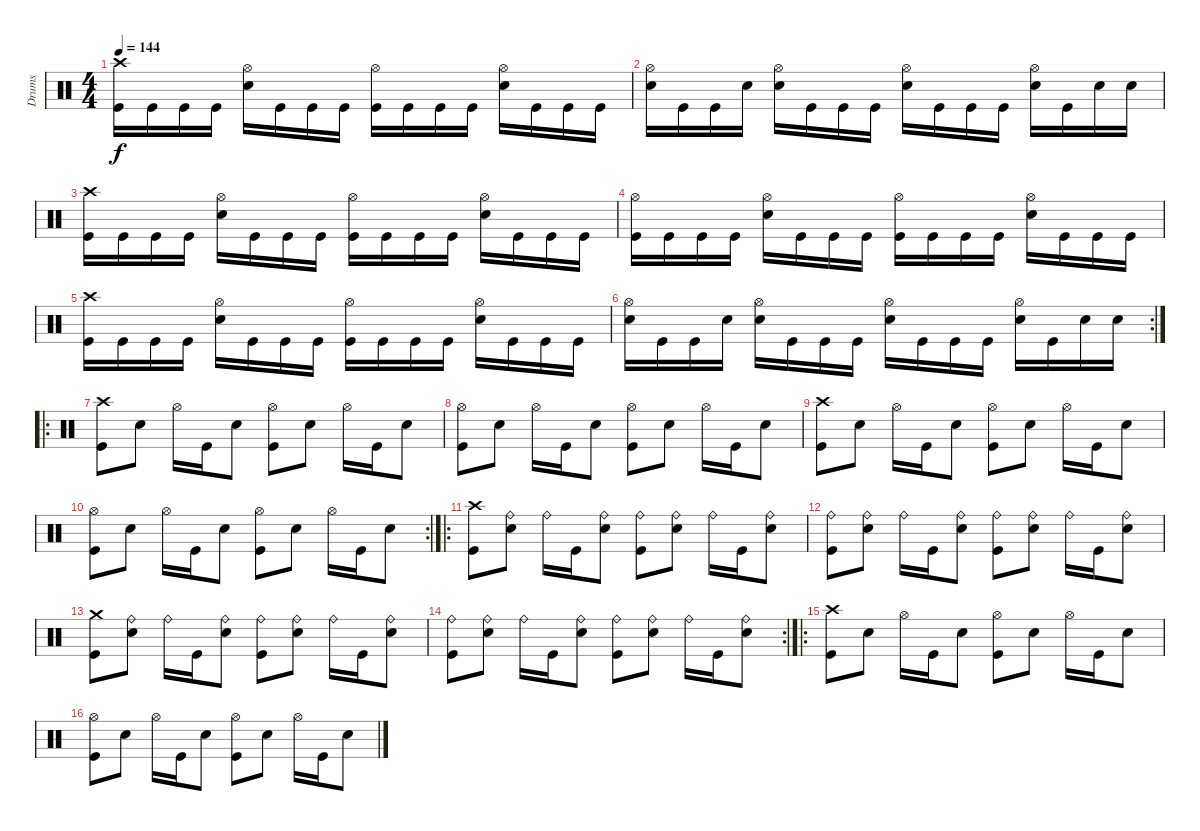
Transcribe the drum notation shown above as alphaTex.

\track ("Drums" "Drums") {instrument percussion}
\staff {score}
\articulation defaults
\ts (4 4)
\tempo 144
\clef neutral
\ks c
("Crash high (hit)" "Kick (hit)").16{dy f} "Kick (hit)".16 "Kick (hit)".16 "Kick (hit)".16 ("Hi-Hat (open)" "Electric Snare (hit)").16 "Kick (hit)".16 "Kick (hit)".16 "Kick (hit)".16 ("Hi-Hat (open)" "Kick (hit)").16 "Kick (hit)".16 "Kick (hit)".16 "Kick (hit)".16 ("Hi-Hat (open)" "Electric Snare (hit)").16 "Kick (hit)".16 "Kick (hit)".16 "Kick (hit)".16 |
("Hi-Hat (open)" "Electric Snare (hit)").16 "Kick (hit)".16 "Kick (hit)".16 "Electric Snare (hit)".16 ("Hi-Hat (open)" "Electric Snare (hit)").16 "Kick (hit)".16 "Kick (hit)".16 "Kick (hit)".16 ("Hi-Hat (open)" "Electric Snare (hit)").16 "Kick (hit)".16 "Kick (hit)".16 "Kick (hit)".16 ("Hi-Hat (open)" "Electric Snare (hit)").16 "Kick (hit)".16 "Electric Snare (hit)".16 "Electric Snare (hit)".16 |
("Crash high (hit)" "Kick (hit)").16 "Kick (hit)".16 "Kick (hit)".16 "Kick (hit)".16 ("Hi-Hat (open)" "Electric Snare (hit)").16 "Kick (hit)".16 "Kick (hit)".16 "Kick (hit)".16 ("Hi-Hat (open)" "Kick (hit)").16 "Kick (hit)".16 "Kick (hit)".16 "Kick (hit)".16 ("Hi-Hat (open)" "Electric Snare (hit)").16 "Kick (hit)".16 "Kick (hit)".16 "Kick (hit)".16 |
("Hi-Hat (open)" "Kick (hit)").16 "Kick (hit)".16 "Kick (hit)".16 "Kick (hit)".16 ("Hi-Hat (open)" "Electric Snare (hit)").16 "Kick (hit)".16 "Kick (hit)".16 "Kick (hit)".16 ("Hi-Hat (open)" "Kick (hit)").16 "Kick (hit)".16 "Kick (hit)".16 "Kick (hit)".16 ("Hi-Hat (open)" "Electric Snare (hit)").16 "Kick (hit)".16 "Kick (hit)".16 "Kick (hit)".16 |
("Crash high (hit)" "Kick (hit)").16 "Kick (hit)".16 "Kick (hit)".16 "Kick (hit)".16 ("Hi-Hat (open)" "Electric Snare (hit)").16 "Kick (hit)".16 "Kick (hit)".16 "Kick (hit)".16 ("Hi-Hat (open)" "Kick (hit)").16 "Kick (hit)".16 "Kick (hit)".16 "Kick (hit)".16 ("Hi-Hat (open)" "Electric Snare (hit)").16 "Kick (hit)".16 "Kick (hit)".16 "Kick (hit)".16 |
\rc 2
("Hi-Hat (open)" "Electric Snare (hit)").16 "Kick (hit)".16 "Kick (hit)".16 "Electric Snare (hit)".16 ("Hi-Hat (open)" "Electric Snare (hit)").16 "Kick (hit)".16 "Kick (hit)".16 "Kick (hit)".16 ("Hi-Hat (open)" "Electric Snare (hit)").16 "Kick (hit)".16 "Kick (hit)".16 "Kick (hit)".16 ("Hi-Hat (open)" "Electric Snare (hit)").16 "Kick (hit)".16 "Electric Snare (hit)".16 "Electric Snare (hit)".16 |
\ro
("Crash high (hit)" "Kick (hit)").8 "Electric Snare (hit)".8 "Hi-Hat (open)".16 "Kick (hit)".16 "Electric Snare (hit)".8 ("Hi-Hat (open)" "Kick (hit)").8 "Electric Snare (hit)".8 "Hi-Hat (open)".16 "Kick (hit)".16 "Electric Snare (hit)".8 |
("Hi-Hat (open)" "Kick (hit)").8 "Electric Snare (hit)".8 "Hi-Hat (open)".16 "Kick (hit)".16 "Electric Snare (hit)".8 ("Hi-Hat (open)" "Kick (hit)").8 "Electric Snare (hit)".8 "Hi-Hat (open)".16 "Kick (hit)".16 "Electric Snare (hit)".8 |
("Crash high (hit)" "Kick (hit)").8 "Electric Snare (hit)".8 "Hi-Hat (open)".16 "Kick (hit)".16 "Electric Snare (hit)".8 ("Hi-Hat (open)" "Kick (hit)").8 "Electric Snare (hit)".8 "Hi-Hat (open)".16 "Kick (hit)".16 "Electric Snare (hit)".8 |
\rc 2
("Hi-Hat (open)" "Kick (hit)").8 "Electric Snare (hit)".8 "Hi-Hat (open)".16 "Kick (hit)".16 "Electric Snare (hit)".8 ("Hi-Hat (open)" "Kick (hit)").8 "Electric Snare (hit)".8 "Hi-Hat (open)".16 "Kick (hit)".16 "Electric Snare (hit)".8 |
\ro
("Crash high (hit)" "Kick (hit)").8 ("Ride (bell)" "Electric Snare (hit)").8 "Ride (bell)".16 "Kick (hit)".16 ("Ride (bell)" "Electric Snare (hit)").8 ("Ride (bell)" "Kick (hit)").8 ("Ride (bell)" "Electric Snare (hit)").8 "Ride (bell)".16 "Kick (hit)".16 ("Ride (bell)" "Electric Snare (hit)").8 |
("Ride (bell)" "Kick (hit)").8 ("Ride (bell)" "Electric Snare (hit)").8 "Ride (bell)".16 "Kick (hit)".16 ("Ride (bell)" "Electric Snare (hit)").8 ("Ride (bell)" "Kick (hit)").8 ("Ride (bell)" "Electric Snare (hit)").8 "Ride (bell)".16 "Kick (hit)".16 ("Ride (bell)" "Electric Snare (hit)").8 |
("Crash medium (hit)" "Kick (hit)").8 ("Ride (bell)" "Electric Snare (hit)").8 "Ride (bell)".16 "Kick (hit)".16 ("Ride (bell)" "Electric Snare (hit)").8 ("Ride (bell)" "Kick (hit)").8 ("Ride (bell)" "Electric Snare (hit)").8 "Ride (bell)".16 "Kick (hit)".16 ("Ride (bell)" "Electric Snare (hit)").8 |
\rc 2
("Ride (bell)" "Kick (hit)").8 ("Ride (bell)" "Electric Snare (hit)").8 "Ride (bell)".16 "Kick (hit)".16 ("Ride (bell)" "Electric Snare (hit)").8 ("Ride (bell)" "Kick (hit)").8 ("Ride (bell)" "Electric Snare (hit)").8 "Ride (bell)".16 "Kick (hit)".16 ("Ride (bell)" "Electric Snare (hit)").8 |
\ro
("Crash high (hit)" "Kick (hit)").8 "Electric Snare (hit)".8 "Hi-Hat (open)".16 "Kick (hit)".16 "Electric Snare (hit)".8 ("Hi-Hat (open)" "Kick (hit)").8 "Electric Snare (hit)".8 "Hi-Hat (open)".16 "Kick (hit)".16 "Electric Snare (hit)".8 |
("Hi-Hat (open)" "Kick (hit)").8 "Electric Snare (hit)".8 "Hi-Hat (open)".16 "Kick (hit)".16 "Electric Snare (hit)".8 ("Hi-Hat (open)" "Kick (hit)").8 "Electric Snare (hit)".8 "Hi-Hat (open)".16 "Kick (hit)".16 "Electric Snare (hit)".8
